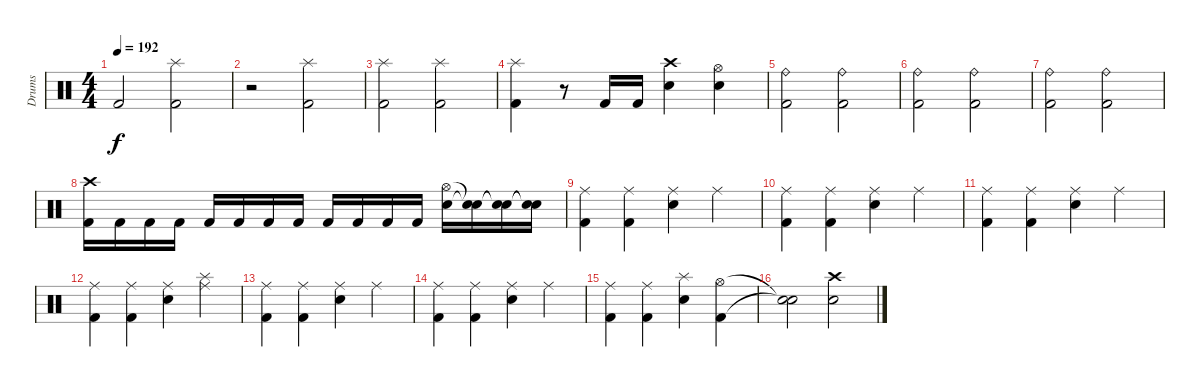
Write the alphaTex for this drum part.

\track ("Drums" "Drums") {instrument percussion}
\staff {score}
\articulation defaults
\ts (4 4)
\tempo 192
\clef neutral
\ks c "Kick (hit) 2".2{dy f}
("Kick (hit) 2" "Splash (hit)").2 |
r.2 ("Kick (hit) 2" "Splash (hit)").2 |
("Kick (hit) 2" "Splash (hit)").2 ("Kick (hit) 2" "Splash (hit)").2 |
("Kick (hit) 2" "Splash (hit)").4 r.8 "Kick (hit) 2".16 "Kick (hit) 2".16 ("Electric Snare (hit)" "Crash high (hit)").4 ("Snare (hit) 2" "Hi-Hat (open)").4 |
("Kick (hit) 2" "Ride (bell)").2 ("Kick (hit) 2" "Ride (bell)").2 |
("Kick (hit) 2" "Ride (bell)").2 ("Kick (hit) 2" "Ride (bell)").2 |
("Kick (hit) 2" "Ride (bell)").2 ("Kick (hit) 2" "Ride (bell)").2 |
("Kick (hit) 2" "Crash high (hit)").16 "Kick (hit) 2".16 "Kick (hit) 2".16 "Kick (hit) 2".16 "Kick (hit) 2".16 "Kick (hit) 2".16 "Kick (hit) 2".16 "Kick (hit) 2".16 "Kick (hit) 2".16 "Kick (hit) 2".16 "Kick (hit) 2".16 "Kick (hit) 2".16 ("Electric Snare (hit)" "Hi-Hat (open)").16 ("Snare (hit)"{t} "Snare (hit)"{t}).16 ("Snare (hit)"{t} "Snare (hit)"{t}).16 ("Snare (hit)"{t} "Snare (hit)"{t}).16 |
("Kick (hit) 2" "Ride (middle)").4 ("Kick (hit) 2" "Ride (middle)").4 ("Electric Snare (hit)" "Ride (middle)").4 "Ride (middle)".4 |
("Kick (hit) 2" "Ride (middle)").4 ("Kick (hit) 2" "Ride (middle)").4 ("Electric Snare (hit)" "Ride (middle)").4 "Ride (middle)".4 |
("Kick (hit) 2" "Ride (middle)").4 ("Kick (hit) 2" "Ride (middle)").4 ("Electric Snare (hit)" "Ride (middle)").4 "Ride (middle)".4 |
("Kick (hit) 2" "Ride (middle)").4 ("Kick (hit) 2" "Ride (middle)").4 ("Electric Snare (hit)" "Ride (middle)").4 ("Ride (middle)" "Splash (hit)").4 |
("Kick (hit) 2" "Ride (middle)").4 ("Kick (hit) 2" "Ride (middle)").4 ("Electric Snare (hit)" "Ride (middle)").4 "Ride (middle)".4 |
("Kick (hit) 2" "Ride (middle)").4 ("Kick (hit) 2" "Ride (middle)").4 ("Electric Snare (hit)" "Ride (middle)").4 "Ride (middle)".4 |
("Kick (hit) 2" "Ride (middle)").4 ("Kick (hit) 2" "Ride (middle)").4 ("Electric Snare (hit)" "Splash (hit)").4 ("Kick (hit) 2" "Hi-Hat (open)").4 |
("Snare (hit)"{t} "Snare (hit)"{t}).2 ("Snare (hit) 2" "Crash high (hit)").2
